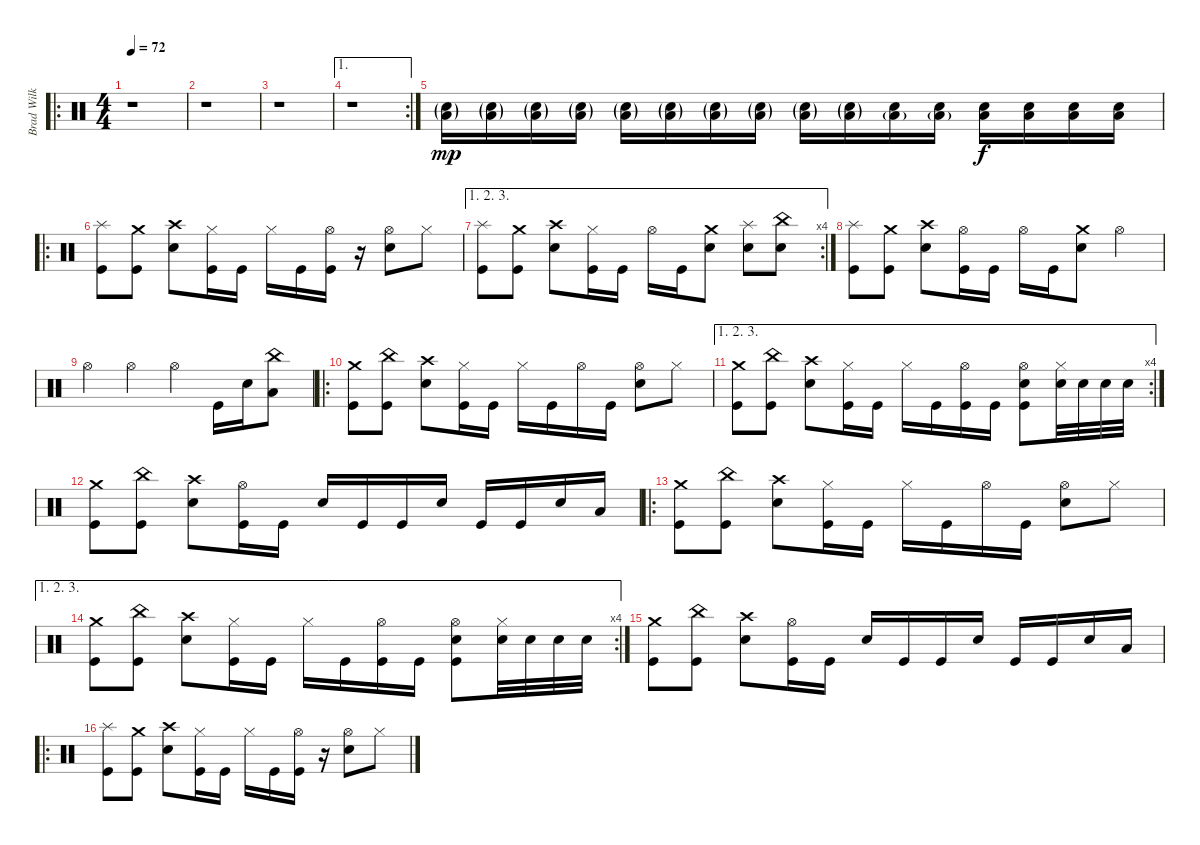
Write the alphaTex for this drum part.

\track ("Brad Wilk (Drums)" "Brad Wilk ") {mute instrument percussion}
\staff {score}
\articulation defaults
\ro
\ts (4 4)
\tempo 72
\clef neutral
\ks c
r.1{dy mp} |
r.1 |
r.1 |
\ae 1
\rc 2
r.1 |
("Snare (hit) 2"{g} "Low Floor Tom (hit)"{g}).16{volume 8} ("Snare (hit) 2"{g} "Low Floor Tom (hit)"{g}).16 ("Snare (hit) 2"{g} "Low Floor Tom (hit)"{g}).16 ("Snare (hit) 2"{g} "Low Floor Tom (hit)"{g}).16 ("Snare (hit) 2"{g} "Low Floor Tom (hit)"{g}).16{volume 10} ("Snare (hit) 2"{g} "Low Floor Tom (hit)"{g}).16 ("Snare (hit) 2"{g} "Low Floor Tom (hit)"{g}).16 ("Snare (hit) 2"{g} "Low Floor Tom (hit)"{g}).16 ("Snare (hit) 2"{g} "Low Floor Tom (hit)"{g}).16{volume 12} ("Snare (hit) 2"{g} "Low Floor Tom (hit)"{g}).16 ("Snare (hit) 2" "Low Floor Tom (hit)"{g}).16 ("Snare (hit) 2" "Low Floor Tom (hit)"{g}).16 ("Snare (hit) 2" "Low Floor Tom (hit)").16{dy f volume 14} ("Snare (hit) 2" "Low Floor Tom (hit)").16 ("Snare (hit) 2" "Low Floor Tom (hit)").16 ("Snare (hit) 2" "Low Floor Tom (hit)").16 |
\ro
("Splash (hit)" "Kick (hit)").8{volume 16} ("Crash medium (hit)" "Kick (hit)").8 ("Crash high (hit)" "Snare (hit) 2").8 ("Hi-Hat (closed)" "Kick (hit)").16 "Kick (hit)".16 "Hi-Hat (closed)".16 "Kick (hit)".16 ("Hi-Hat (open)" "Kick (hit)").16 r.16 ("Hi-Hat (open)" "Snare (hit) 2").8 "Hi-Hat (closed)".8 |
\ae (1 2 3)
\rc 4
("Splash (hit)" "Kick (hit)").8 ("Crash medium (hit)" "Kick (hit)").8 ("Crash high (hit)" "Snare (hit) 2").8 ("Hi-Hat (closed)" "Kick (hit)").16 "Kick (hit)".16 "Hi-Hat (open)".16 "Kick (hit)".16 ("Crash medium (hit)" "Snare (hit) 2").8 ("Splash (hit)" "Snare (hit) 2").8 ("China (hit)" "Snare (hit) 2").8 |
("Splash (hit)" "Kick (hit)").8 ("Crash medium (hit)" "Kick (hit)").8 ("Crash high (hit)" "Snare (hit) 2").8 ("Hi-Hat (open)" "Kick (hit)").16 "Kick (hit)".16 "Hi-Hat (open)".16 "Kick (hit)".16 ("Crash medium (hit)" "Snare (hit) 2").8 "Hi-Hat (open)".4 |
"Hi-Hat (open)".4 "Hi-Hat (open)".4 "Hi-Hat (open)".4 "Kick (hit)".16 "Snare (hit) 2".16 ("China (hit)" "Low Floor Tom (hit)").8 |
\ro
("Crash medium (hit)" "Kick (hit)").8 ("China (hit)" "Kick (hit)").8 ("Crash high (hit)" "Snare (hit) 2").8 ("Hi-Hat (closed)" "Kick (hit)").16 "Kick (hit)".16 "Hi-Hat (closed)".16 "Kick (hit)".16 "Hi-Hat (open)".16 "Kick (hit)".16 ("Hi-Hat (open)" "Snare (hit) 2").8 "Hi-Hat (closed)".8 |
\ae (1 2 3)
\rc 4
("Crash medium (hit)" "Kick (hit)").8 ("China (hit)" "Kick (hit)").8 ("Crash high (hit)" "Snare (hit) 2").8 ("Hi-Hat (closed)" "Kick (hit)").16 "Kick (hit)".16 "Hi-Hat (closed)".16 "Kick (hit)".16 ("Hi-Hat (open)" "Kick (hit)").16 "Kick (hit)".16 ("Hi-Hat (open)" "Snare (hit) 2" "Kick (hit)").8 ("Hi-Hat (closed)" "Snare (hit) 2").32 "Snare (hit) 2".32 "Snare (hit) 2".32 "Snare (hit) 2".32 |
("Crash medium (hit)" "Kick (hit)").8 ("China (hit)" "Kick (hit)").8 ("Crash high (hit)" "Snare (hit) 2").8 ("Hi-Hat (open)" "Kick (hit)").16 "Kick (hit)".16 "Snare (hit) 2".16 "Kick (hit)".16 "Kick (hit)".16 "Snare (hit) 2".16 "Kick (hit)".16 "Kick (hit)".16 "Snare (hit) 2".16 "Low Floor Tom (hit)".16 |
\ro
("Crash medium (hit)" "Kick (hit)").8 ("China (hit)" "Kick (hit)").8 ("Crash high (hit)" "Snare (hit) 2").8 ("Hi-Hat (closed)" "Kick (hit)").16 "Kick (hit)".16 "Hi-Hat (closed)".16 "Kick (hit)".16 "Hi-Hat (open)".16 "Kick (hit)".16 ("Hi-Hat (open)" "Snare (hit) 2").8 "Hi-Hat (closed)".8 |
\ae (1 2 3)
\rc 4
("Crash medium (hit)" "Kick (hit)").8 ("China (hit)" "Kick (hit)").8 ("Crash high (hit)" "Snare (hit) 2").8 ("Hi-Hat (closed)" "Kick (hit)").16 "Kick (hit)".16 "Hi-Hat (closed)".16 "Kick (hit)".16 ("Hi-Hat (open)" "Kick (hit)").16 "Kick (hit)".16 ("Hi-Hat (open)" "Snare (hit) 2" "Kick (hit)").8 ("Hi-Hat (closed)" "Snare (hit) 2").32 "Snare (hit) 2".32 "Snare (hit) 2".32 "Snare (hit) 2".32 |
("Crash medium (hit)" "Kick (hit)").8 ("China (hit)" "Kick (hit)").8 ("Crash high (hit)" "Snare (hit) 2").8 ("Hi-Hat (open)" "Kick (hit)").16 "Kick (hit)".16 "Snare (hit) 2".16 "Kick (hit)".16 "Kick (hit)".16 "Snare (hit) 2".16 "Kick (hit)".16 "Kick (hit)".16 "Snare (hit) 2".16 "Low Floor Tom (hit)".16 |
\ro
("Splash (hit)" "Kick (hit)").8 ("Crash medium (hit)" "Kick (hit)").8 ("Crash high (hit)" "Snare (hit) 2").8 ("Hi-Hat (closed)" "Kick (hit)").16 "Kick (hit)".16 "Hi-Hat (closed)".16 "Kick (hit)".16 ("Hi-Hat (open)" "Kick (hit)").16 r.16 ("Hi-Hat (open)" "Snare (hit) 2").8 "Hi-Hat (closed)".8
